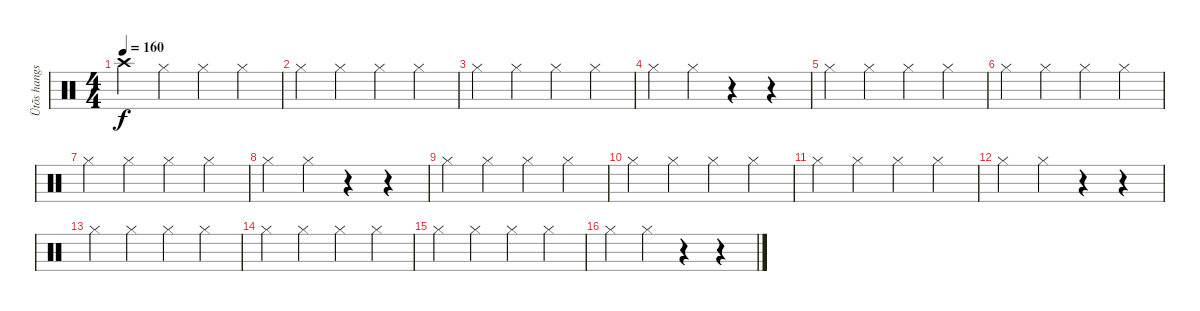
\track ("Ütõs hangszer" "Ütõs hangs") {instrument percussion}
\staff {score}
\articulation defaults
\ts (4 4)
\tempo 160
\clef neutral
\ks c "Crash high (hit)".4{dy f} "Hi-Hat (closed)".4 "Hi-Hat (closed)".4 "Hi-Hat (closed)".4
|
"Hi-Hat (closed)".4 "Hi-Hat (closed)".4 "Hi-Hat (closed)".4 "Hi-Hat (closed)".4 |
"Hi-Hat (closed)".4 "Hi-Hat (closed)".4 "Hi-Hat (closed)".4 "Hi-Hat (closed)".4 |
"Hi-Hat (closed)".4 "Hi-Hat (closed)".4 r.4 r.4 |
"Hi-Hat (closed)".4 "Hi-Hat (closed)".4 "Hi-Hat (closed)".4 "Hi-Hat (closed)".4 |
"Hi-Hat (closed)".4 "Hi-Hat (closed)".4 "Hi-Hat (closed)".4 "Hi-Hat (closed)".4 |
"Hi-Hat (closed)".4 "Hi-Hat (closed)".4 "Hi-Hat (closed)".4 "Hi-Hat (closed)".4 |
"Hi-Hat (closed)".4 "Hi-Hat (closed)".4 r.4 r.4 |
"Hi-Hat (closed)".4 "Hi-Hat (closed)".4 "Hi-Hat (closed)".4 "Hi-Hat (closed)".4 |
"Hi-Hat (closed)".4 "Hi-Hat (closed)".4 "Hi-Hat (closed)".4 "Hi-Hat (closed)".4 |
"Hi-Hat (closed)".4 "Hi-Hat (closed)".4 "Hi-Hat (closed)".4 "Hi-Hat (closed)".4 |
"Hi-Hat (closed)".4 "Hi-Hat (closed)".4 r.4 r.4 |
"Hi-Hat (closed)".4 "Hi-Hat (closed)".4 "Hi-Hat (closed)".4 "Hi-Hat (closed)".4 |
"Hi-Hat (closed)".4 "Hi-Hat (closed)".4 "Hi-Hat (closed)".4 "Hi-Hat (closed)".4 |
"Hi-Hat (closed)".4 "Hi-Hat (closed)".4 "Hi-Hat (closed)".4 "Hi-Hat (closed)".4 |
"Hi-Hat (closed)".4 "Hi-Hat (closed)".4 r.4 r.4
